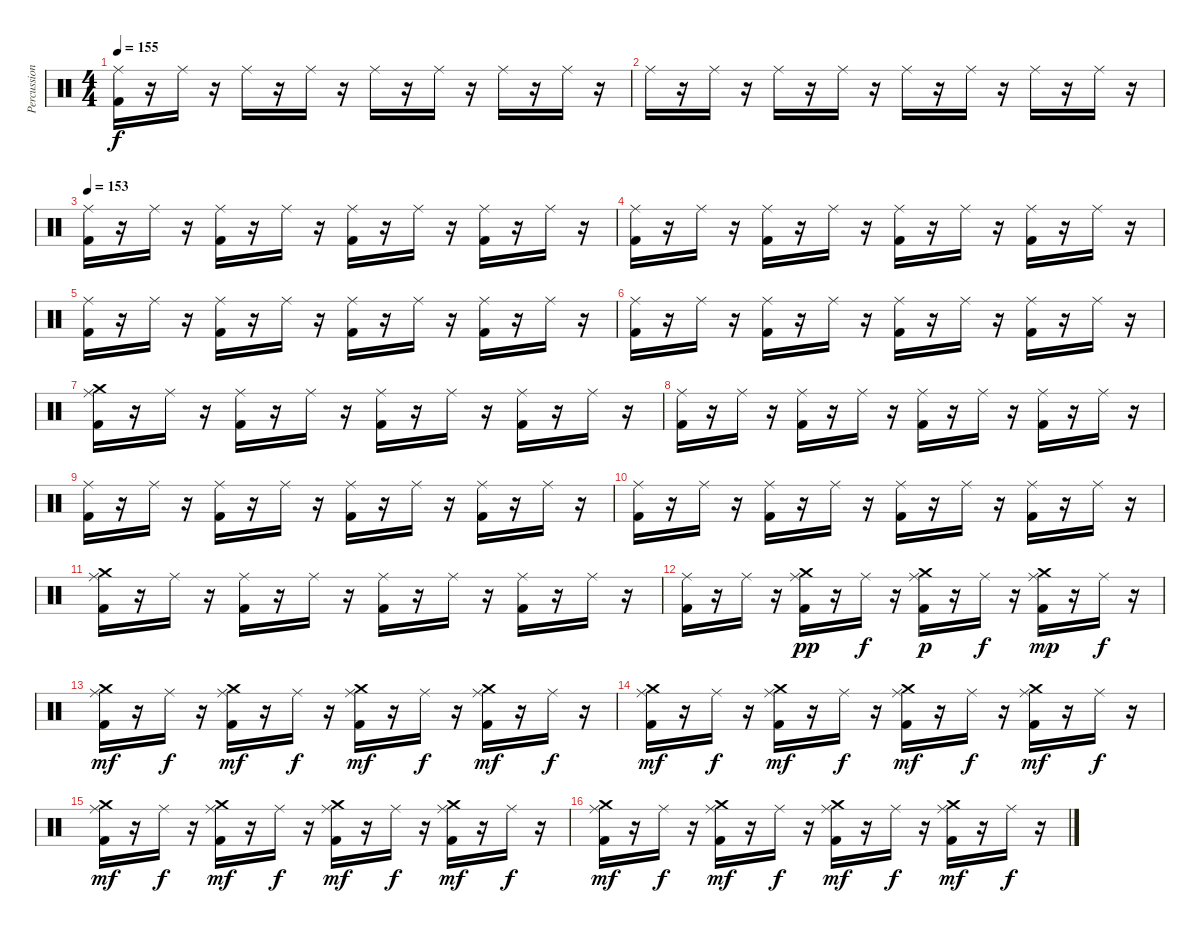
\track ("Percussion" "Percussion") {instrument percussion}
\staff {score}
\articulation defaults
\ts (4 4)
\tempo 155
\clef neutral
\ks c
("Ride (middle)" "Kick (hit) 2").16{dy f} r.16 "Ride (middle)".16 r.16 "Ride (middle)".16 r.16 "Ride (middle)".16 r.16 "Ride (middle)".16 r.16 "Ride (middle)".16 r.16 "Ride (middle)".16 r.16 "Ride (middle)".16 r.16 |
"Ride (middle)".16 r.16 "Ride (middle)".16 r.16 "Ride (middle)".16 r.16 "Ride (middle)".16 r.16 "Ride (middle)".16 r.16 "Ride (middle)".16 r.16 "Ride (middle)".16 r.16 "Ride (middle)".16 r.16 |
\tempo 153
("Ride (middle)" "Kick (hit) 2").16 r.16 "Ride (middle)".16 r.16 ("Ride (middle)" "Kick (hit) 2").16 r.16 "Ride (middle)".16 r.16 ("Ride (middle)" "Kick (hit) 2").16 r.16 "Ride (middle)".16 r.16 ("Ride (middle)" "Kick (hit) 2").16 r.16 "Ride (middle)".16 r.16 |
("Ride (middle)" "Kick (hit) 2").16 r.16 "Ride (middle)".16 r.16 ("Ride (middle)" "Kick (hit) 2").16 r.16 "Ride (middle)".16 r.16 ("Ride (middle)" "Kick (hit) 2").16 r.16 "Ride (middle)".16 r.16 ("Ride (middle)" "Kick (hit) 2").16 r.16 "Ride (middle)".16 r.16 |
("Ride (middle)" "Kick (hit) 2").16 r.16 "Ride (middle)".16 r.16 ("Ride (middle)" "Kick (hit) 2").16 r.16 "Ride (middle)".16 r.16 ("Ride (middle)" "Kick (hit) 2").16 r.16 "Ride (middle)".16 r.16 ("Ride (middle)" "Kick (hit) 2").16 r.16 "Ride (middle)".16 r.16 |
("Ride (middle)" "Kick (hit) 2").16 r.16 "Ride (middle)".16 r.16 ("Ride (middle)" "Kick (hit) 2").16 r.16 "Ride (middle)".16 r.16 ("Ride (middle)" "Kick (hit) 2").16 r.16 "Ride (middle)".16 r.16 ("Ride (middle)" "Kick (hit) 2").16 r.16 "Ride (middle)".16 r.16 |
("Ride (middle)" "Crash medium (hit)" "Kick (hit) 2").16 r.16 "Ride (middle)".16 r.16 ("Ride (middle)" "Kick (hit) 2").16 r.16 "Ride (middle)".16 r.16 ("Ride (middle)" "Kick (hit) 2").16 r.16 "Ride (middle)".16 r.16 ("Ride (middle)" "Kick (hit) 2").16 r.16 "Ride (middle)".16 r.16 |
("Ride (middle)" "Kick (hit) 2").16 r.16 "Ride (middle)".16 r.16 ("Ride (middle)" "Kick (hit) 2").16 r.16 "Ride (middle)".16 r.16 ("Ride (middle)" "Kick (hit) 2").16 r.16 "Ride (middle)".16 r.16 ("Ride (middle)" "Kick (hit) 2").16 r.16 "Ride (middle)".16 r.16 |
("Ride (middle)" "Kick (hit) 2").16 r.16 "Ride (middle)".16 r.16 ("Ride (middle)" "Kick (hit) 2").16 r.16 "Ride (middle)".16 r.16 ("Ride (middle)" "Kick (hit) 2").16 r.16 "Ride (middle)".16 r.16 ("Ride (middle)" "Kick (hit) 2").16 r.16 "Ride (middle)".16 r.16 |
("Ride (middle)" "Kick (hit) 2").16 r.16 "Ride (middle)".16 r.16 ("Ride (middle)" "Kick (hit) 2").16 r.16 "Ride (middle)".16 r.16 ("Ride (middle)" "Kick (hit) 2").16 r.16 "Ride (middle)".16 r.16 ("Ride (middle)" "Kick (hit) 2").16 r.16 "Ride (middle)".16 r.16 |
("Ride (middle)" "Crash medium (hit)" "Kick (hit) 2").16 r.16 "Ride (middle)".16 r.16 ("Ride (middle)" "Kick (hit) 2").16 r.16 "Ride (middle)".16 r.16 ("Ride (middle)" "Kick (hit) 2").16 r.16 "Ride (middle)".16 r.16 ("Ride (middle)" "Kick (hit) 2").16 r.16 "Ride (middle)".16 r.16 |
("Ride (middle)" "Kick (hit) 2").16 r.16 "Ride (middle)".16 r.16 ("Ride (middle)" "Crash medium (hit)" "Kick (hit) 2").16{dy pp} r.16 "Ride (middle)".16{dy f} r.16 ("Ride (middle)" "Crash medium (hit)" "Kick (hit) 2").16{dy p} r.16 "Ride (middle)".16{dy f} r.16 ("Ride (middle)" "Crash medium (hit)" "Kick (hit) 2").16{dy mp} r.16 "Ride (middle)".16{dy f} r.16 |
("Ride (middle)" "Crash medium (hit)" "Kick (hit) 2").16{dy mf} r.16 "Ride (middle)".16{dy f} r.16 ("Ride (middle)" "Crash medium (hit)" "Kick (hit) 2").16{dy mf} r.16 "Ride (middle)".16{dy f} r.16 ("Ride (middle)" "Crash medium (hit)" "Kick (hit) 2").16{dy mf} r.16 "Ride (middle)".16{dy f} r.16 ("Ride (middle)" "Crash medium (hit)" "Kick (hit) 2").16{dy mf} r.16 "Ride (middle)".16{dy f} r.16 |
("Ride (middle)" "Crash medium (hit)" "Kick (hit) 2").16{dy mf} r.16 "Ride (middle)".16{dy f} r.16 ("Ride (middle)" "Crash medium (hit)" "Kick (hit) 2").16{dy mf} r.16 "Ride (middle)".16{dy f} r.16 ("Ride (middle)" "Crash medium (hit)" "Kick (hit) 2").16{dy mf} r.16 "Ride (middle)".16{dy f} r.16 ("Ride (middle)" "Crash medium (hit)" "Kick (hit) 2").16{dy mf} r.16 "Ride (middle)".16{dy f} r.16 |
("Ride (middle)" "Crash medium (hit)" "Kick (hit) 2").16{dy mf} r.16 "Ride (middle)".16{dy f} r.16 ("Ride (middle)" "Crash medium (hit)" "Kick (hit) 2").16{dy mf} r.16 "Ride (middle)".16{dy f} r.16 ("Ride (middle)" "Crash medium (hit)" "Kick (hit) 2").16{dy mf} r.16 "Ride (middle)".16{dy f} r.16 ("Ride (middle)" "Crash medium (hit)" "Kick (hit) 2").16{dy mf} r.16 "Ride (middle)".16{dy f} r.16 |
("Ride (middle)" "Crash medium (hit)" "Kick (hit) 2").16{dy mf} r.16 "Ride (middle)".16{dy f} r.16 ("Ride (middle)" "Crash medium (hit)" "Kick (hit) 2").16{dy mf} r.16 "Ride (middle)".16{dy f} r.16 ("Ride (middle)" "Crash medium (hit)" "Kick (hit) 2").16{dy mf} r.16 "Ride (middle)".16{dy f} r.16 ("Ride (middle)" "Crash medium (hit)" "Kick (hit) 2").16{dy mf} r.16 "Ride (middle)".16{dy f} r.16
